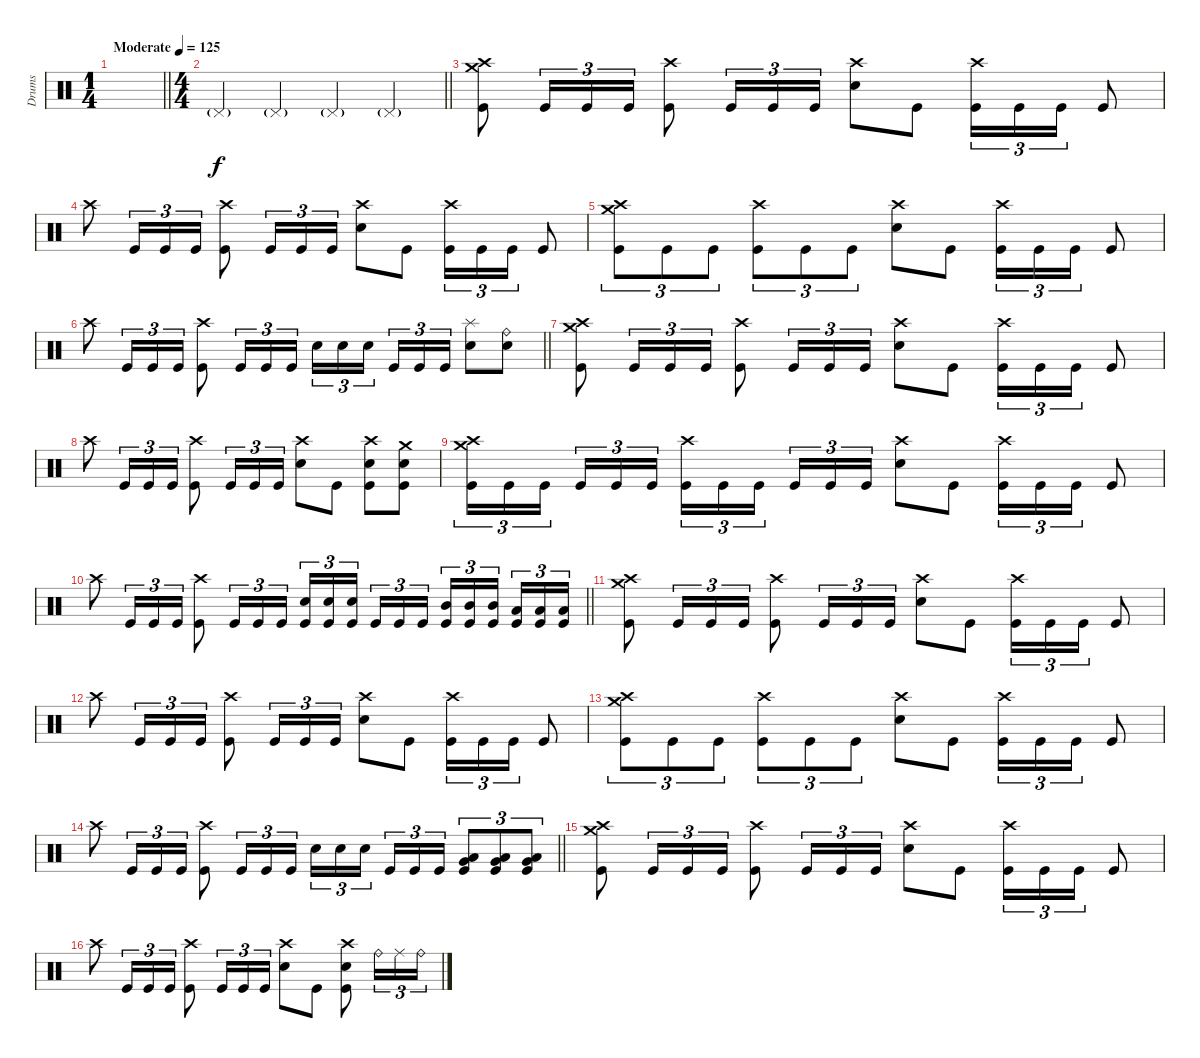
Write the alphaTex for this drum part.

\track ("Drums" "Drums") {instrument percussion}
\staff
\articulation defaults
\ts (1 4)
\tempo (125 "Moderate")
\clef neutral
\barLineRight lightlight
\ks c
|
\ts (4 4)
\barLineRight lightlight "Pedal Hi-Hat (hit)"{g}.4 "Pedal Hi-Hat (hit)"{g}.4 "Pedal Hi-Hat (hit)"{g}.4 "Pedal Hi-Hat (hit)"{g}.4
|
("Crash high (hit)" "Crash medium (hit)" "Kick (hit)").8{dy f} "Kick (hit)".16{tu (3 2)} "Kick (hit)".16{tu (3 2)} "Kick (hit)".16{tu (3 2)} ("Crash high (hit)" "Kick (hit)").8 "Kick (hit)".16{tu (3 2)} "Kick (hit)".16{tu (3 2)} "Kick (hit)".16{tu (3 2)} ("Crash high (hit)" "Electric Snare (hit)").8 "Kick (hit)".8 ("Crash high (hit)" "Kick (hit)").16{tu (3 2)} "Kick (hit)".16{tu (3 2)} "Kick (hit)".16{tu (3 2)} "Kick (hit)".8 |
"Crash high (hit)".8 "Kick (hit)".16{tu (3 2)} "Kick (hit)".16{tu (3 2)} "Kick (hit)".16{tu (3 2)} ("Crash high (hit)" "Kick (hit)").8 "Kick (hit)".16{tu (3 2)} "Kick (hit)".16{tu (3 2)} "Kick (hit)".16{tu (3 2)} ("Crash high (hit)" "Electric Snare (hit)").8 "Kick (hit)".8 ("Crash high (hit)" "Kick (hit)").16{tu (3 2)} "Kick (hit)".16{tu (3 2)} "Kick (hit)".16{tu (3 2)} "Kick (hit)".8 |
("Crash high (hit)" "Crash medium (hit)" "Kick (hit)").8{tu (3 2)} "Kick (hit)".8{tu (3 2)} "Kick (hit)".8{tu (3 2)} ("Crash high (hit)" "Kick (hit)").8{tu (3 2)} "Kick (hit)".8{tu (3 2)} "Kick (hit)".8{tu (3 2)} ("Crash high (hit)" "Electric Snare (hit)").8 "Kick (hit)".8 ("Crash high (hit)" "Kick (hit)").16{tu (3 2)} "Kick (hit)".16{tu (3 2)} "Kick (hit)".16{tu (3 2)} "Kick (hit)".8 |
\barLineRight lightlight "Crash high (hit)".8 "Kick (hit)".16{tu (3 2)} "Kick (hit)".16{tu (3 2)} "Kick (hit)".16{tu (3 2)}
("Crash high (hit)" "Kick (hit)").8 "Kick (hit)".16{tu (3 2)} "Kick (hit)".16{tu (3 2)} "Kick (hit)".16{tu (3 2)} "Electric Snare (hit)".16{tu (3 2)} "Electric Snare (hit)".16{tu (3 2)} "Electric Snare (hit)".16{tu (3 2) beam splitsecondary} "Kick (hit)".16{tu (3 2)} "Kick (hit)".16{tu (3 2)} "Kick (hit)".16{tu (3 2)} ("Splash (hit)" "Electric Snare (hit)").8 ("Ride (bell)" "Electric Snare (hit)").8 |
("Crash high (hit)" "Crash medium (hit)" "Kick (hit)").8 "Kick (hit)".16{tu (3 2)} "Kick (hit)".16{tu (3 2)} "Kick (hit)".16{tu (3 2)} ("Crash high (hit)" "Kick (hit)").8 "Kick (hit)".16{tu (3 2)} "Kick (hit)".16{tu (3 2)} "Kick (hit)".16{tu (3 2)} ("Crash high (hit)" "Electric Snare (hit)").8 "Kick (hit)".8 ("Crash high (hit)" "Kick (hit)").16{tu (3 2)} "Kick (hit)".16{tu (3 2)} "Kick (hit)".16{tu (3 2)} "Kick (hit)".8 |
"Crash high (hit)".8 "Kick (hit)".16{tu (3 2)} "Kick (hit)".16{tu (3 2)} "Kick (hit)".16{tu (3 2)} ("Crash high (hit)" "Kick (hit)").8 "Kick (hit)".16{tu (3 2)} "Kick (hit)".16{tu (3 2)} "Kick (hit)".16{tu (3 2)} ("Crash high (hit)" "Electric Snare (hit)").8 "Kick (hit)".8 ("Crash high (hit)" "Electric Snare (hit)" "Kick (hit)").8 ("Crash medium (hit)" "Electric Snare (hit)" "Kick (hit)").8 |
("Crash high (hit)" "Crash medium (hit)" "Kick (hit)").16{tu (3 2)} "Kick (hit)".16{tu (3 2)} "Kick (hit)".16{tu (3 2) beam splitsecondary} "Kick (hit)".16{tu (3 2)} "Kick (hit)".16{tu (3 2)} "Kick (hit)".16{tu (3 2)} ("Crash high (hit)" "Kick (hit)").16{tu (3 2)} "Kick (hit)".16{tu (3 2)} "Kick (hit)".16{tu (3 2) beam splitsecondary} "Kick (hit)".16{tu (3 2)} "Kick (hit)".16{tu (3 2)} "Kick (hit)".16{tu (3 2)} ("Crash high (hit)" "Electric Snare (hit)").8 "Kick (hit)".8 ("Crash high (hit)" "Kick (hit)").16{tu (3 2)} "Kick (hit)".16{tu (3 2)} "Kick (hit)".16{tu (3 2)} "Kick (hit)".8 |
\barLineRight lightlight "Crash high (hit)".8 "Kick (hit)".16{tu (3 2)} "Kick (hit)".16{tu (3 2)} "Kick (hit)".16{tu (3 2)}
("Crash high (hit)" "Kick (hit)").8 "Kick (hit)".16{tu (3 2)} "Kick (hit)".16{tu (3 2)} "Kick (hit)".16{tu (3 2)} ("Electric Snare (hit)" "Kick (hit)").16{tu (3 2)} ("Electric Snare (hit)" "Kick (hit)").16{tu (3 2)} ("Electric Snare (hit)" "Kick (hit)").16{tu (3 2) beam splitsecondary} "Kick (hit)".16{tu (3 2)} "Kick (hit)".16{tu (3 2)} "Kick (hit)".16{tu (3 2)} ("Mid Tom (hit)" "Kick (hit)").16{tu (3 2)} ("Mid Tom (hit)" "Kick (hit)").16{tu (3 2)} ("Mid Tom (hit)" "Kick (hit)").16{tu (3 2) beam splitsecondary} ("Low Tom (hit)" "Kick (hit)").16{tu (3 2)} ("Low Tom (hit)" "Kick (hit)").16{tu (3 2)} ("Low Tom (hit)" "Kick (hit)").16{tu (3 2)} |
("Crash high (hit)" "Crash medium (hit)" "Kick (hit)").8 "Kick (hit)".16{tu (3 2)} "Kick (hit)".16{tu (3 2)} "Kick (hit)".16{tu (3 2)} ("Crash high (hit)" "Kick (hit)").8 "Kick (hit)".16{tu (3 2)} "Kick (hit)".16{tu (3 2)} "Kick (hit)".16{tu (3 2)} ("Crash high (hit)" "Electric Snare (hit)").8 "Kick (hit)".8 ("Crash high (hit)" "Kick (hit)").16{tu (3 2)} "Kick (hit)".16{tu (3 2)} "Kick (hit)".16{tu (3 2)} "Kick (hit)".8 |
"Crash high (hit)".8 "Kick (hit)".16{tu (3 2)} "Kick (hit)".16{tu (3 2)} "Kick (hit)".16{tu (3 2)} ("Crash high (hit)" "Kick (hit)").8 "Kick (hit)".16{tu (3 2)} "Kick (hit)".16{tu (3 2)} "Kick (hit)".16{tu (3 2)} ("Crash high (hit)" "Electric Snare (hit)").8 "Kick (hit)".8 ("Crash high (hit)" "Kick (hit)").16{tu (3 2)} "Kick (hit)".16{tu (3 2)} "Kick (hit)".16{tu (3 2)} "Kick (hit)".8 |
("Crash high (hit)" "Crash medium (hit)" "Kick (hit)").8{tu (3 2)} "Kick (hit)".8{tu (3 2)} "Kick (hit)".8{tu (3 2)} ("Crash high (hit)" "Kick (hit)").8{tu (3 2)} "Kick (hit)".8{tu (3 2)} "Kick (hit)".8{tu (3 2)} ("Crash high (hit)" "Electric Snare (hit)").8 "Kick (hit)".8 ("Crash high (hit)" "Kick (hit)").16{tu (3 2)} "Kick (hit)".16{tu (3 2)} "Kick (hit)".16{tu (3 2)} "Kick (hit)".8 |
\barLineRight lightlight "Crash high (hit)".8 "Kick (hit)".16{tu (3 2)} "Kick (hit)".16{tu (3 2)} "Kick (hit)".16{tu (3 2)}
("Crash high (hit)" "Kick (hit)").8 "Kick (hit)".16{tu (3 2)} "Kick (hit)".16{tu (3 2)} "Kick (hit)".16{tu (3 2)} "Electric Snare (hit)".16{tu (3 2)} "Electric Snare (hit)".16{tu (3 2)} "Electric Snare (hit)".16{tu (3 2) beam splitsecondary} "Kick (hit)".16{tu (3 2)} "Kick (hit)".16{tu (3 2)} "Kick (hit)".16{tu (3 2)} ("Very Low Tom (hit)" "Low Floor Tom (hit)" "Kick (hit)").8{tu (3 2)} ("Very Low Tom (hit)" "Low Floor Tom (hit)" "Kick (hit)").8{tu (3 2)} ("Very Low Tom (hit)" "Low Floor Tom (hit)" "Kick (hit)").8{tu (3 2)} |
("Crash high (hit)" "Crash medium (hit)" "Kick (hit)").8 "Kick (hit)".16{tu (3 2)} "Kick (hit)".16{tu (3 2)} "Kick (hit)".16{tu (3 2)} ("Crash high (hit)" "Kick (hit)").8 "Kick (hit)".16{tu (3 2)} "Kick (hit)".16{tu (3 2)} "Kick (hit)".16{tu (3 2)} ("Crash high (hit)" "Electric Snare (hit)").8 "Kick (hit)".8 ("Crash high (hit)" "Kick (hit)").16{tu (3 2)} "Kick (hit)".16{tu (3 2)} "Kick (hit)".16{tu (3 2)} "Kick (hit)".8 |
"Crash high (hit)".8 "Kick (hit)".16{tu (3 2)} "Kick (hit)".16{tu (3 2)} "Kick (hit)".16{tu (3 2)} ("Crash high (hit)" "Kick (hit)").8 "Kick (hit)".16{tu (3 2)} "Kick (hit)".16{tu (3 2)} "Kick (hit)".16{tu (3 2)} ("Crash high (hit)" "Electric Snare (hit)").8 "Kick (hit)".8 ("Crash high (hit)" "Electric Snare (hit)" "Kick (hit)").8 "Ride (bell)".16{tu (3 2)} "Ride (middle)".16{tu (3 2)} "Ride (bell)".16{tu (3 2)}
